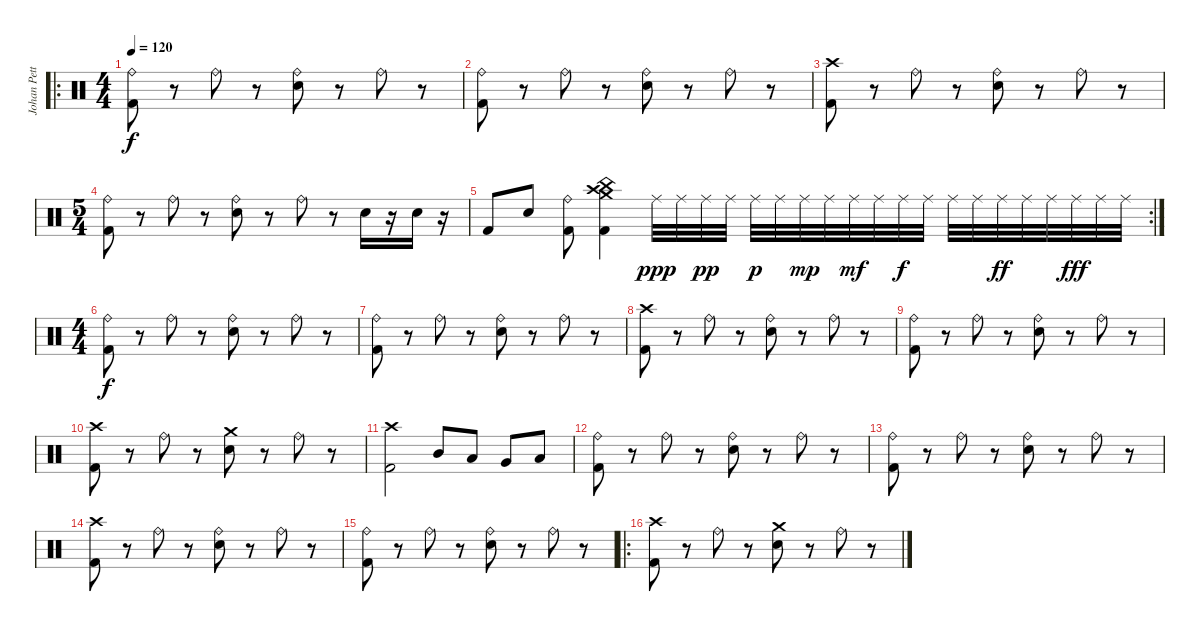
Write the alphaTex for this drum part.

\track ("Johan Petterson" "Johan Pett") {instrument percussion}
\staff {score}
\articulation defaults
\ro
\ts (4 4)
\tempo 120
\clef neutral
\ks c
("Ride (bell)" "Kick (hit) 2").8{dy f} r.8 "Ride (bell)".8 r.8 ("Ride (bell)" "Snare (hit) 2").8 r.8 "Ride (bell)".8 r.8 |
("Ride (bell)" "Kick (hit) 2").8 r.8 "Ride (bell)".8 r.8 ("Ride (bell)" "Snare (hit) 2").8 r.8 "Ride (bell)".8 r.8 |
("Crash high (hit)" "Kick (hit) 2").8 r.8 "Ride (bell)".8 r.8 ("Ride (bell)" "Snare (hit) 2").8 r.8 "Ride (bell)".8 r.8 |
\ts (5 4)
("Ride (bell)" "Kick (hit) 2").8 r.8 "Ride (bell)".8 r.8 ("Ride (bell)" "Snare (hit) 2").8 r.8 "Ride (bell)".8 r.8 "Snare (hit) 2".16 r.16 "Snare (hit) 2".16 r.16 |
\rc 2 "Kick (hit) 2".8 "Snare (hit) 2".8
("Ride (bell)" "Kick (hit) 2").8 ("Crash high (hit)" "Crash medium (hit)" "China (hit)" "Kick (hit) 2").4 "Ride (middle)".32{dy ppp} "Ride (middle)".32 "Ride (middle)".32{dy pp} "Ride (middle)".32 "Ride (middle)".32{dy p} "Ride (middle)".32 "Ride (middle)".32{dy mp} "Ride (middle)".32 "Ride (middle)".32{dy mf} "Ride (middle)".32 "Ride (middle)".32{dy f} "Ride (middle)".32 "Ride (middle)".32 "Ride (middle)".32 "Ride (middle)".32{dy ff} "Ride (middle)".32 "Ride (middle)".32 "Ride (middle)".32{dy fff} "Ride (middle)".32 "Ride (middle)".32 |
\ts (4 4)
("Ride (bell)" "Kick (hit) 2").8{dy f} r.8 "Ride (bell)".8 r.8 ("Ride (bell)" "Snare (hit) 2").8 r.8 "Ride (bell)".8 r.8 |
("Ride (bell)" "Kick (hit) 2").8 r.8 "Ride (bell)".8 r.8 ("Ride (bell)" "Snare (hit) 2").8 r.8 "Ride (bell)".8 r.8 |
("Crash high (hit)" "Kick (hit) 2").8 r.8 "Ride (bell)".8 r.8 ("Ride (bell)" "Snare (hit) 2").8 r.8 "Ride (bell)".8 r.8 |
("Ride (bell)" "Kick (hit) 2").8 r.8 "Ride (bell)".8 r.8 ("Ride (bell)" "Snare (hit) 2").8 r.8 "Ride (bell)".8 r.8 |
("Crash high (hit)" "Kick (hit) 2").8 r.8 "Ride (bell)".8 r.8 ("Crash medium (hit)" "Snare (hit) 2").8 r.8 "Ride (bell)".8 r.8 |
("Crash high (hit)" "Kick (hit) 2").2 "Mid Tom (hit)".8 "Low Tom (hit)".8 "Very Low Tom (hit)".8 "Low Floor Tom (hit)".8 |
("Ride (bell)" "Kick (hit) 2").8 r.8 "Ride (bell)".8 r.8 ("Ride (bell)" "Snare (hit) 2").8 r.8 "Ride (bell)".8 r.8 |
("Ride (bell)" "Kick (hit) 2").8 r.8 "Ride (bell)".8 r.8 ("Ride (bell)" "Snare (hit) 2").8 r.8 "Ride (bell)".8 r.8 |
("Crash high (hit)" "Kick (hit) 2").8 r.8 "Ride (bell)".8 r.8 ("Ride (bell)" "Snare (hit) 2").8 r.8 "Ride (bell)".8 r.8 |
("Ride (bell)" "Kick (hit) 2").8 r.8 "Ride (bell)".8 r.8 ("Ride (bell)" "Snare (hit) 2").8 r.8 "Ride (bell)".8 r.8 |
\ro
("Crash high (hit)" "Kick (hit) 2").8 r.8 "Ride (bell)".8 r.8 ("Crash medium (hit)" "Snare (hit) 2").8 r.8 "Ride (bell)".8 r.8
